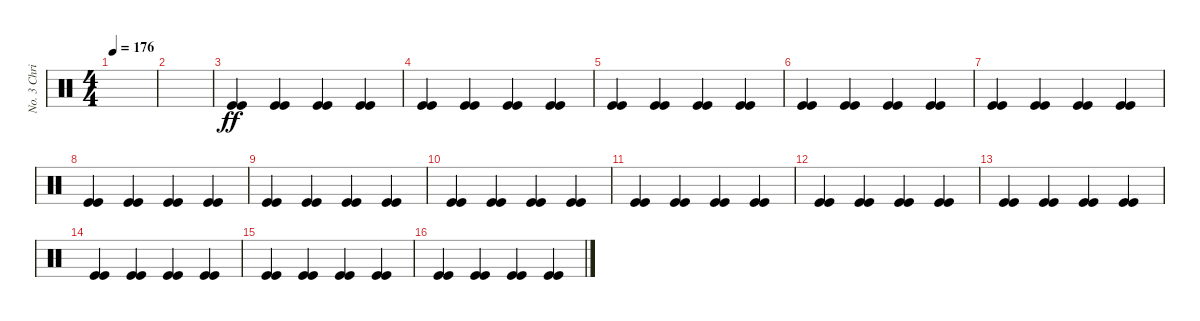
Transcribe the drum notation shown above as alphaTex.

\track ("No. 3 Chris" "No. 3 Chri") {instrument percussion}
\staff {score}
\articulation defaults
\ts (4 4)
\tempo 176
\clef neutral
\ks c
|
|
("Kick (hit)" "Kick (hit)").4{dy ff} ("Kick (hit)" "Kick (hit)").4 ("Kick (hit)" "Kick (hit)").4 ("Kick (hit)" "Kick (hit)").4 |
("Kick (hit)" "Kick (hit)").4 ("Kick (hit)" "Kick (hit)").4 ("Kick (hit)" "Kick (hit)").4 ("Kick (hit)" "Kick (hit)").4 |
("Kick (hit)" "Kick (hit)").4 ("Kick (hit)" "Kick (hit)").4 ("Kick (hit)" "Kick (hit)").4 ("Kick (hit)" "Kick (hit)").4 |
("Kick (hit)" "Kick (hit)").4 ("Kick (hit)" "Kick (hit)").4 ("Kick (hit)" "Kick (hit)").4 ("Kick (hit)" "Kick (hit)").4 |
("Kick (hit)" "Kick (hit)").4 ("Kick (hit)" "Kick (hit)").4 ("Kick (hit)" "Kick (hit)").4 ("Kick (hit)" "Kick (hit)").4 |
("Kick (hit)" "Kick (hit)").4 ("Kick (hit)" "Kick (hit)").4 ("Kick (hit)" "Kick (hit)").4 ("Kick (hit)" "Kick (hit)").4 |
("Kick (hit)" "Kick (hit)").4 ("Kick (hit)" "Kick (hit)").4 ("Kick (hit)" "Kick (hit)").4 ("Kick (hit)" "Kick (hit)").4 |
("Kick (hit)" "Kick (hit)").4 ("Kick (hit)" "Kick (hit)").4 ("Kick (hit)" "Kick (hit)").4 ("Kick (hit)" "Kick (hit)").4 |
("Kick (hit)" "Kick (hit)").4 ("Kick (hit)" "Kick (hit)").4 ("Kick (hit)" "Kick (hit)").4 ("Kick (hit)" "Kick (hit)").4 |
("Kick (hit)" "Kick (hit)").4 ("Kick (hit)" "Kick (hit)").4 ("Kick (hit)" "Kick (hit)").4 ("Kick (hit)" "Kick (hit)").4 |
("Kick (hit)" "Kick (hit)").4 ("Kick (hit)" "Kick (hit)").4 ("Kick (hit)" "Kick (hit)").4 ("Kick (hit)" "Kick (hit)").4 |
("Kick (hit)" "Kick (hit)").4 ("Kick (hit)" "Kick (hit)").4 ("Kick (hit)" "Kick (hit)").4 ("Kick (hit)" "Kick (hit)").4 |
("Kick (hit)" "Kick (hit)").4 ("Kick (hit)" "Kick (hit)").4 ("Kick (hit)" "Kick (hit)").4 ("Kick (hit)" "Kick (hit)").4 |
("Kick (hit)" "Kick (hit)").4 ("Kick (hit)" "Kick (hit)").4 ("Kick (hit)" "Kick (hit)").4 ("Kick (hit)" "Kick (hit)").4
